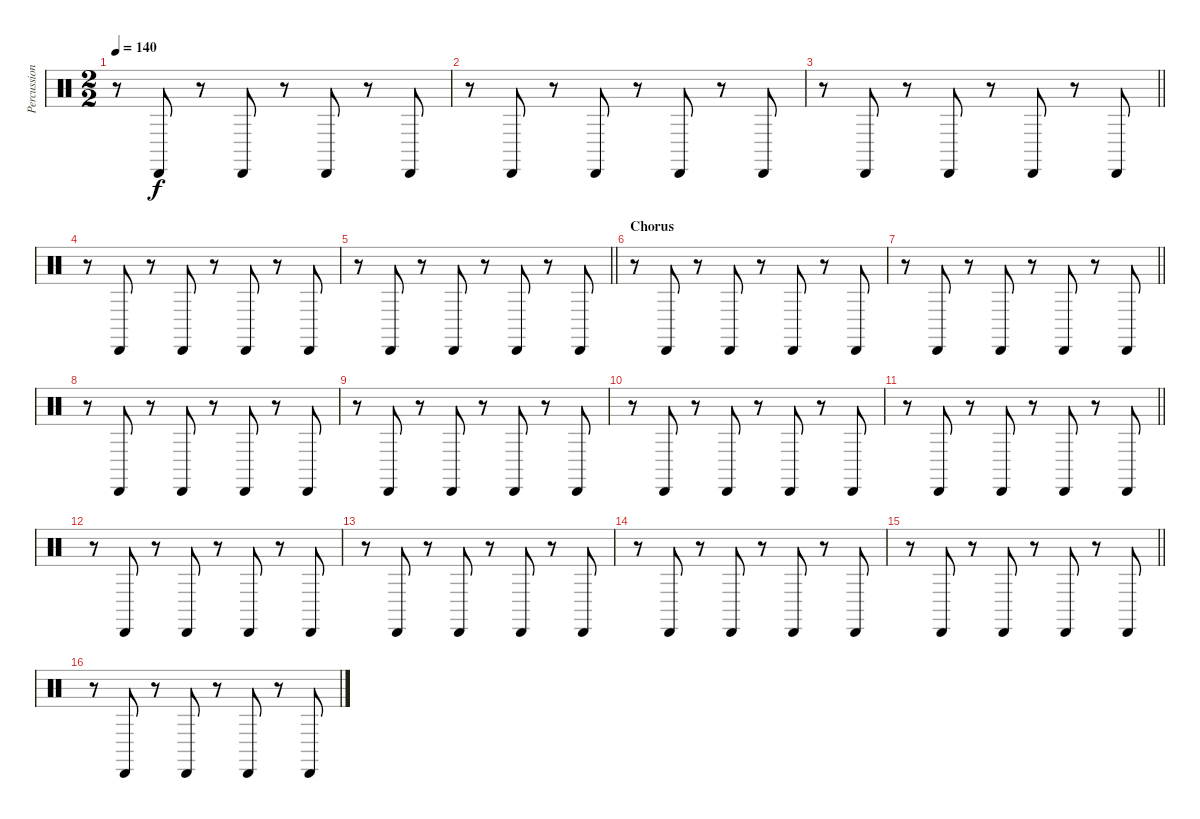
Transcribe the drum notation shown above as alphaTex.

\track ("Percussion 2" "Percussion") {instrument percussion}
\staff {score}
\articulation defaults
\ts (2 2)
\tempo 140
\clef neutral
\ks c
r.8{dy f} "Cabasa (hit)".8 r.8 "Cabasa (hit)".8 r.8 "Cabasa (hit)".8 r.8 "Cabasa (hit)".8 |
r.8 "Cabasa (hit)".8 r.8 "Cabasa (hit)".8 r.8 "Cabasa (hit)".8 r.8 "Cabasa (hit)".8 |
\barLineRight lightlight
r.8 "Cabasa (hit)".8 r.8 "Cabasa (hit)".8 r.8 "Cabasa (hit)".8 r.8 "Cabasa (hit)".8 |
r.8 "Cabasa (hit)".8 r.8 "Cabasa (hit)".8 r.8 "Cabasa (hit)".8 r.8 "Cabasa (hit)".8 |
\barLineRight lightlight
r.8 "Cabasa (hit)".8 r.8 "Cabasa (hit)".8 r.8 "Cabasa (hit)".8 r.8 "Cabasa (hit)".8 |
\section ("" "Chorus")
r.8 "Cabasa (hit)".8 r.8 "Cabasa (hit)".8 r.8 "Cabasa (hit)".8 r.8 "Cabasa (hit)".8 |
\barLineRight lightlight
r.8 "Cabasa (hit)".8 r.8 "Cabasa (hit)".8 r.8 "Cabasa (hit)".8 r.8 "Cabasa (hit)".8 |
r.8 "Cabasa (hit)".8 r.8 "Cabasa (hit)".8 r.8 "Cabasa (hit)".8 r.8 "Cabasa (hit)".8 |
r.8 "Cabasa (hit)".8 r.8 "Cabasa (hit)".8 r.8 "Cabasa (hit)".8 r.8 "Cabasa (hit)".8 |
r.8 "Cabasa (hit)".8 r.8 "Cabasa (hit)".8 r.8 "Cabasa (hit)".8 r.8 "Cabasa (hit)".8 |
\barLineRight lightlight
r.8 "Cabasa (hit)".8 r.8 "Cabasa (hit)".8 r.8 "Cabasa (hit)".8 r.8 "Cabasa (hit)".8 |
r.8 "Cabasa (hit)".8 r.8 "Cabasa (hit)".8 r.8 "Cabasa (hit)".8 r.8 "Cabasa (hit)".8 |
r.8 "Cabasa (hit)".8 r.8 "Cabasa (hit)".8 r.8 "Cabasa (hit)".8 r.8 "Cabasa (hit)".8 |
r.8 "Cabasa (hit)".8 r.8 "Cabasa (hit)".8 r.8 "Cabasa (hit)".8 r.8 "Cabasa (hit)".8 |
\barLineRight lightlight
r.8 "Cabasa (hit)".8 r.8 "Cabasa (hit)".8 r.8 "Cabasa (hit)".8 r.8 "Cabasa (hit)".8 |
r.8 "Cabasa (hit)".8 r.8 "Cabasa (hit)".8 r.8 "Cabasa (hit)".8 r.8 "Cabasa (hit)".8
